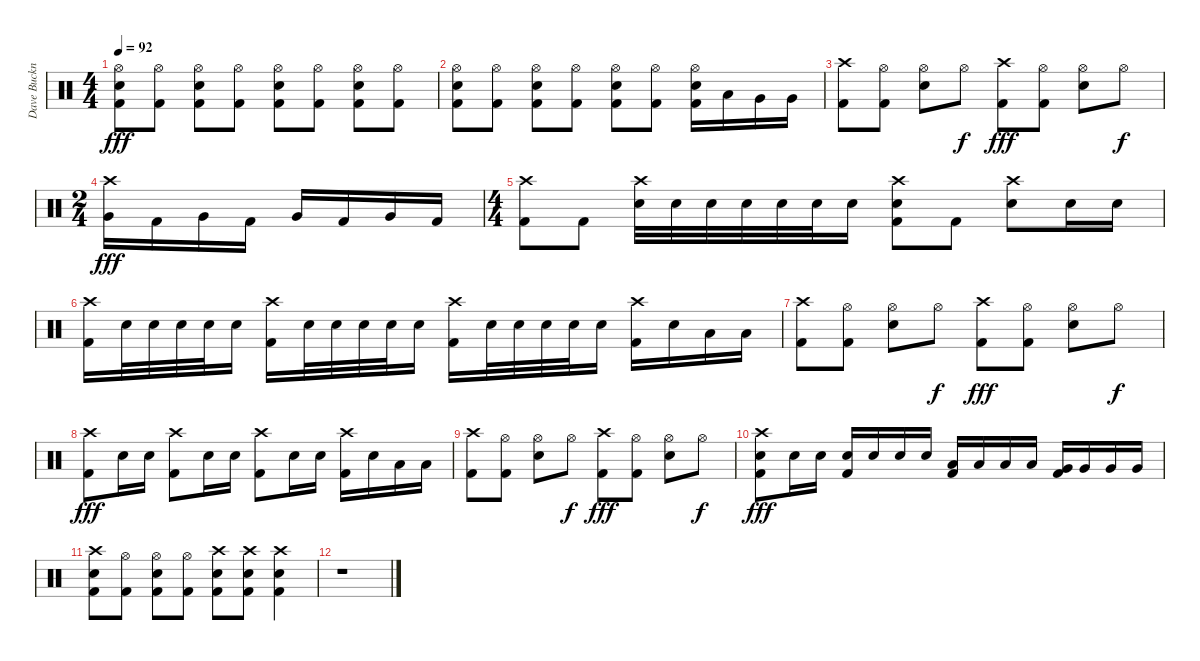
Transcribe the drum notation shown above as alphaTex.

\track ("Dave Buckner" "Dave Buckn") {instrument percussion}
\staff {score}
\articulation defaults
\ts (4 4)
\tempo 92
\clef neutral
\ks c
("Hi-Hat (open)" "Electric Snare (hit)" "Kick (hit) 2").8{dy fff} ("Hi-Hat (open)" "Kick (hit) 2").8 ("Hi-Hat (open)" "Electric Snare (hit)" "Kick (hit) 2").8 ("Hi-Hat (open)" "Kick (hit) 2").8 ("Hi-Hat (open)" "Electric Snare (hit)" "Kick (hit) 2").8 ("Hi-Hat (open)" "Kick (hit) 2").8 ("Hi-Hat (open)" "Electric Snare (hit)" "Kick (hit) 2").8 ("Hi-Hat (open)" "Kick (hit) 2").8 |
("Hi-Hat (open)" "Electric Snare (hit)" "Kick (hit) 2").8 ("Hi-Hat (open)" "Kick (hit) 2").8 ("Hi-Hat (open)" "Electric Snare (hit)" "Kick (hit) 2").8 ("Hi-Hat (open)" "Kick (hit) 2").8 ("Hi-Hat (open)" "Electric Snare (hit)" "Kick (hit) 2").8 ("Hi-Hat (open)" "Kick (hit) 2").8 ("Hi-Hat (open)" "Electric Snare (hit)" "Kick (hit) 2").16 "Low Tom (hit)".16 "Very Low Tom (hit)".16 "Very Low Tom (hit)".16 |
("Crash high (hit)" "Kick (hit) 2").8 ("Hi-Hat (open)" "Kick (hit) 2").8 ("Hi-Hat (open)" "Electric Snare (hit)").8 "Hi-Hat (open)".8{dy f} ("Crash high (hit)" "Kick (hit) 2").8{dy fff} ("Hi-Hat (open)" "Kick (hit) 2").8 ("Hi-Hat (open)" "Electric Snare (hit)").8 "Hi-Hat (open)".8{dy f} |
\ts (2 4)
("Crash high (hit)" "Very Low Tom (hit)").16{dy fff} "Kick (hit) 2".16 "Very Low Tom (hit)".16 "Kick (hit) 2".16 "Very Low Tom (hit)".16 "Kick (hit) 2".16 "Very Low Tom (hit)".16 "Kick (hit) 2".16 |
\ts (4 4)
("Crash high (hit)" "Kick (hit) 2").8 "Kick (hit) 2".8 ("Crash high (hit)" "Electric Snare (hit)").32 "Electric Snare (hit)".32 "Electric Snare (hit)".32 "Electric Snare (hit)".32 "Electric Snare (hit)".32 "Electric Snare (hit)".32 "Electric Snare (hit)".16 ("Crash high (hit)" "Electric Snare (hit)" "Kick (hit) 2").8 "Kick (hit) 2".8 ("Crash high (hit)" "Electric Snare (hit)").8 "Electric Snare (hit)".16 "Electric Snare (hit)".16 |
("Crash high (hit)" "Kick (hit) 2").16 "Electric Snare (hit)".32 "Electric Snare (hit)".32 "Electric Snare (hit)".32 "Electric Snare (hit)".32 "Electric Snare (hit)".16 ("Crash high (hit)" "Kick (hit) 2").16 "Electric Snare (hit)".32 "Electric Snare (hit)".32 "Electric Snare (hit)".32 "Electric Snare (hit)".32 "Electric Snare (hit)".16 ("Crash high (hit)" "Kick (hit) 2").16 "Electric Snare (hit)".32 "Electric Snare (hit)".32 "Electric Snare (hit)".32 "Electric Snare (hit)".32 "Electric Snare (hit)".16 ("Crash high (hit)" "Kick (hit) 2").16 "Electric Snare (hit)".16 "Low Tom (hit)".16 "Low Tom (hit)".16 |
("Crash high (hit)" "Kick (hit) 2").8 ("Hi-Hat (open)" "Kick (hit) 2").8 ("Hi-Hat (open)" "Electric Snare (hit)").8 "Hi-Hat (open)".8{dy f} ("Crash high (hit)" "Kick (hit) 2").8{dy fff} ("Hi-Hat (open)" "Kick (hit) 2").8 ("Hi-Hat (open)" "Electric Snare (hit)").8 "Hi-Hat (open)".8{dy f} |
("Crash high (hit)" "Kick (hit) 2").8{dy fff} "Electric Snare (hit)".16 "Electric Snare (hit)".16 ("Crash high (hit)" "Kick (hit) 2").8 "Electric Snare (hit)".16 "Electric Snare (hit)".16 ("Crash high (hit)" "Kick (hit) 2").8 "Electric Snare (hit)".16 "Electric Snare (hit)".16 ("Crash high (hit)" "Kick (hit) 2").16 "Electric Snare (hit)".16 "Low Tom (hit)".16 "Low Tom (hit)".16 |
("Crash high (hit)" "Kick (hit) 2").8 ("Hi-Hat (open)" "Kick (hit) 2").8 ("Hi-Hat (open)" "Electric Snare (hit)").8 "Hi-Hat (open)".8{dy f} ("Crash high (hit)" "Kick (hit) 2").8{dy fff} ("Hi-Hat (open)" "Kick (hit) 2").8 ("Hi-Hat (open)" "Electric Snare (hit)").8 "Hi-Hat (open)".8{dy f} |
("Crash high (hit)" "Electric Snare (hit)" "Kick (hit) 2").8{dy fff} "Electric Snare (hit)".16 "Electric Snare (hit)".16 ("Electric Snare (hit)" "Kick (hit) 2").16 "Electric Snare (hit)".16 "Electric Snare (hit)".16 "Electric Snare (hit)".16 ("Low Tom (hit)" "Kick (hit) 2").16 "Low Tom (hit)".16 "Low Tom (hit)".16 "Low Tom (hit)".16 ("Very Low Tom (hit)" "Kick (hit) 2").16 "Very Low Tom (hit)".16 "Very Low Tom (hit)".16 "Very Low Tom (hit)".16 |
("Crash high (hit)" "Electric Snare (hit)" "Kick (hit) 2").8 ("Hi-Hat (open)" "Kick (hit) 2").8 ("Hi-Hat (open)" "Electric Snare (hit)" "Kick (hit) 2").8 ("Hi-Hat (open)" "Kick (hit) 2").8 ("Crash high (hit)" "Electric Snare (hit)" "Kick (hit) 2").8 ("Crash high (hit)" "Electric Snare (hit)" "Kick (hit) 2").8 ("Crash high (hit)" "Electric Snare (hit)" "Kick (hit) 2").4 |
r.1
